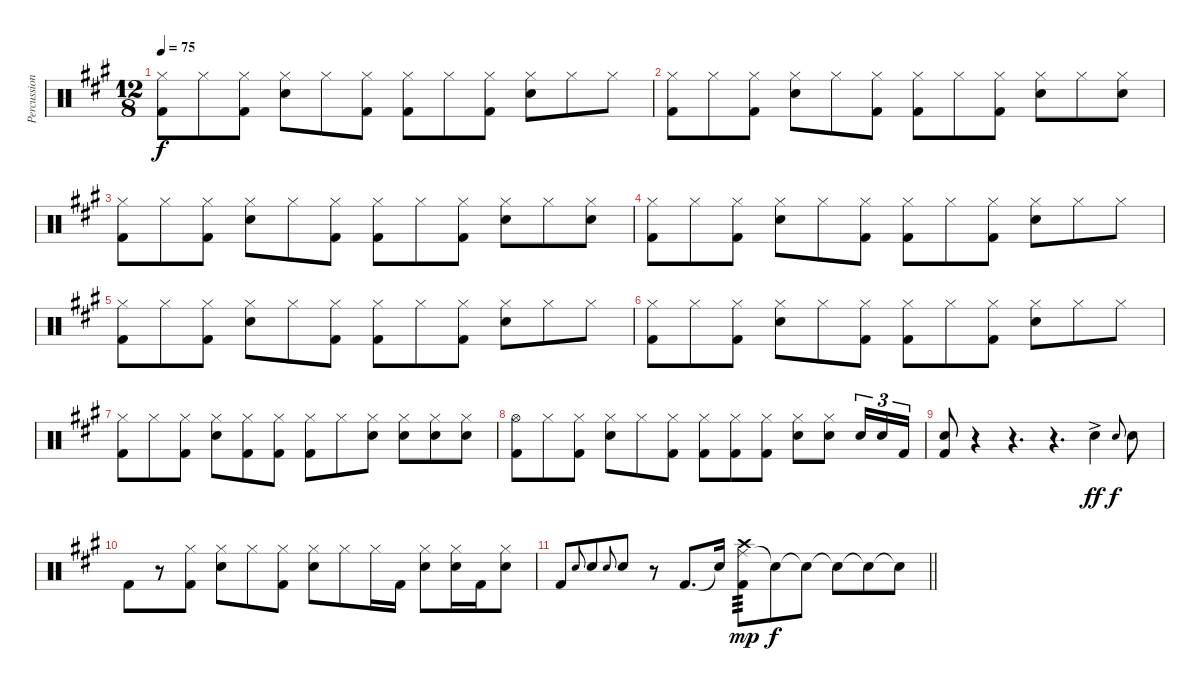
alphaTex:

\track ("Percussion" "Percussion") {instrument percussion}
\staff {score}
\articulation defaults
\ts (12 8)
\tempo 75
\clef neutral
\ks a
("Hi-Hat (closed)" "Kick (hit) 2").8{dy f} "Hi-Hat (closed)".8 ("Hi-Hat (closed)" "Kick (hit) 2").8 ("Hi-Hat (closed)" "Snare (hit) 2").8 "Hi-Hat (closed)".8 ("Hi-Hat (closed)" "Kick (hit) 2").8 ("Hi-Hat (closed)" "Kick (hit) 2").8 "Hi-Hat (closed)".8 ("Hi-Hat (closed)" "Kick (hit) 2").8 ("Hi-Hat (closed)" "Snare (hit) 2").8 "Hi-Hat (closed)".8 "Hi-Hat (closed)".8 |
("Hi-Hat (closed)" "Kick (hit) 2").8 "Hi-Hat (closed)".8 ("Hi-Hat (closed)" "Kick (hit) 2").8 ("Hi-Hat (closed)" "Snare (hit) 2").8 "Hi-Hat (closed)".8 ("Hi-Hat (closed)" "Kick (hit) 2").8 ("Hi-Hat (closed)" "Kick (hit) 2").8 "Hi-Hat (closed)".8 ("Hi-Hat (closed)" "Kick (hit) 2").8 ("Hi-Hat (closed)" "Snare (hit) 2").8 "Hi-Hat (closed)".8 ("Hi-Hat (closed)" "Snare (hit) 2").8 |
("Hi-Hat (closed)" "Kick (hit) 2").8 "Hi-Hat (closed)".8 ("Hi-Hat (closed)" "Kick (hit) 2").8 ("Hi-Hat (closed)" "Snare (hit) 2").8 "Hi-Hat (closed)".8 ("Hi-Hat (closed)" "Kick (hit) 2").8 ("Hi-Hat (closed)" "Kick (hit) 2").8 "Hi-Hat (closed)".8 ("Hi-Hat (closed)" "Kick (hit) 2").8 ("Hi-Hat (closed)" "Snare (hit) 2").8 "Hi-Hat (closed)".8 ("Hi-Hat (closed)" "Snare (hit) 2").8 |
("Hi-Hat (closed)" "Kick (hit) 2").8 "Hi-Hat (closed)".8 ("Hi-Hat (closed)" "Kick (hit) 2").8 ("Hi-Hat (closed)" "Snare (hit) 2").8 "Hi-Hat (closed)".8 ("Hi-Hat (closed)" "Kick (hit) 2").8 ("Hi-Hat (closed)" "Kick (hit) 2").8 "Hi-Hat (closed)".8 ("Hi-Hat (closed)" "Kick (hit) 2").8 ("Hi-Hat (closed)" "Snare (hit) 2").8 "Hi-Hat (closed)".8 "Hi-Hat (closed)".8 |
("Hi-Hat (closed)" "Kick (hit) 2").8 "Hi-Hat (closed)".8 ("Hi-Hat (closed)" "Kick (hit) 2").8 ("Hi-Hat (closed)" "Snare (hit) 2").8 "Hi-Hat (closed)".8 ("Hi-Hat (closed)" "Kick (hit) 2").8 ("Hi-Hat (closed)" "Kick (hit) 2").8 "Hi-Hat (closed)".8 ("Hi-Hat (closed)" "Kick (hit) 2").8 ("Hi-Hat (closed)" "Snare (hit) 2").8 "Hi-Hat (closed)".8 "Hi-Hat (closed)".8 |
("Hi-Hat (closed)" "Kick (hit) 2").8 "Hi-Hat (closed)".8 ("Hi-Hat (closed)" "Kick (hit) 2").8 ("Hi-Hat (closed)" "Snare (hit) 2").8 "Hi-Hat (closed)".8 ("Hi-Hat (closed)" "Kick (hit) 2").8 ("Hi-Hat (closed)" "Kick (hit) 2").8 "Hi-Hat (closed)".8 ("Hi-Hat (closed)" "Kick (hit) 2").8 ("Hi-Hat (closed)" "Snare (hit) 2").8 "Hi-Hat (closed)".8 "Hi-Hat (closed)".8 |
("Hi-Hat (closed)" "Kick (hit) 2").8 "Hi-Hat (closed)".8 ("Hi-Hat (closed)" "Kick (hit) 2").8 ("Hi-Hat (closed)" "Snare (hit) 2").8 ("Hi-Hat (closed)" "Kick (hit) 2").8 ("Hi-Hat (closed)" "Kick (hit) 2").8 ("Hi-Hat (closed)" "Kick (hit) 2").8 "Hi-Hat (closed)".8 ("Hi-Hat (closed)" "Snare (hit) 2").8 ("Hi-Hat (closed)" "Snare (hit) 2").8 ("Hi-Hat (closed)" "Snare (hit) 2").8 ("Hi-Hat (closed)" "Snare (hit) 2").8 |
("Hi-Hat (open)" "Kick (hit) 2").8 "Hi-Hat (closed)".8 ("Hi-Hat (closed)" "Kick (hit) 2").8 ("Hi-Hat (closed)" "Snare (hit) 2").8 "Hi-Hat (closed)".8 ("Hi-Hat (closed)" "Kick (hit) 2").8 ("Hi-Hat (closed)" "Kick (hit) 2").8 ("Hi-Hat (closed)" "Kick (hit) 2").8 ("Hi-Hat (closed)" "Kick (hit) 2").8 ("Hi-Hat (closed)" "Snare (hit) 2").8 ("Hi-Hat (closed)" "Snare (hit) 2").8 "Snare (hit) 2".16{tu (3 2)} "Snare (hit) 2".16{tu (3 2)} "Kick (hit) 2".16{tu (3 2)} |
("Snare (hit) 2" "Kick (hit) 2").8 r.4 r.4{d} r.4{d} "Snare (hit) 2"{ac}.4{dy ff} "Snare (hit) 2".8{gr onbeat dy f} "Snare (hit) 2".8 |
"Kick (hit) 2".8 r.8 ("Hi-Hat (closed)" "Kick (hit) 2").8 ("Hi-Hat (closed)" "Snare (hit) 2").8 "Hi-Hat (closed)".8 ("Hi-Hat (closed)" "Kick (hit) 2").8 ("Hi-Hat (closed)" "Snare (hit) 2").8 "Hi-Hat (closed)".8 "Hi-Hat (closed)".16 "Kick (hit) 2".16 ("Hi-Hat (closed)" "Snare (hit) 2").8 ("Hi-Hat (closed)" "Snare (hit) 2").16 "Kick (hit) 2".16 ("Hi-Hat (closed)" "Snare (hit) 2").8 |
\barLineRight lightlight "Kick (hit) 2".8 "Snare (hit) 2".8{gr onbeat} "Snare (hit) 2".8 "Snare (hit) 2".8{gr onbeat} "Snare (hit) 2".8
r.8 "Kick (hit) 2".8{d} "Snare (hit)"{t}.16 ("Ride (middle)" "Crash high (hit)" "Kick (hit) 2").8{tp 3 dy mp} "Snare (hit)"{t}.8{dy f} "Snare (hit)"{t}.8 "Snare (hit)"{t}.8 "Snare (hit)"{t}.8 "Snare (hit)"{t}.8
